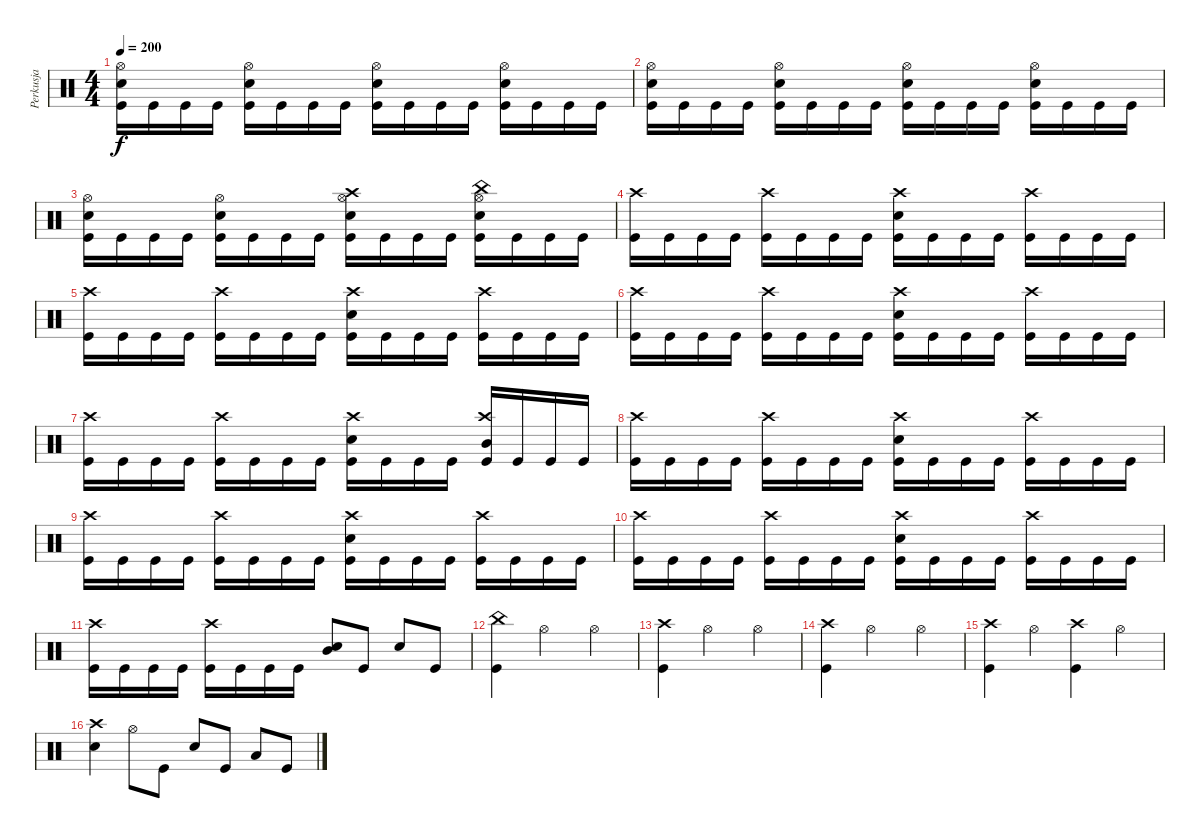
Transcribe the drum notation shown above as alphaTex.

\track ("Perkusja" "Perkusja") {instrument percussion}
\staff {score}
\articulation defaults
\ts (4 4)
\tempo 200
\clef neutral
\ks c
("Hi-Hat (open)" "Electric Snare (hit)" "Kick (hit)").16{dy f} "Kick (hit)".16 "Kick (hit)".16 "Kick (hit)".16 ("Hi-Hat (open)" "Electric Snare (hit)" "Kick (hit)").16 "Kick (hit)".16 "Kick (hit)".16 "Kick (hit)".16 ("Hi-Hat (open)" "Electric Snare (hit)" "Kick (hit)").16 "Kick (hit)".16 "Kick (hit)".16 "Kick (hit)".16 ("Hi-Hat (open)" "Electric Snare (hit)" "Kick (hit)").16 "Kick (hit)".16 "Kick (hit)".16 "Kick (hit)".16 |
("Hi-Hat (open)" "Electric Snare (hit)" "Kick (hit)").16 "Kick (hit)".16 "Kick (hit)".16 "Kick (hit)".16 ("Hi-Hat (open)" "Electric Snare (hit)" "Kick (hit)").16 "Kick (hit)".16 "Kick (hit)".16 "Kick (hit)".16 ("Hi-Hat (open)" "Electric Snare (hit)" "Kick (hit)").16 "Kick (hit)".16 "Kick (hit)".16 "Kick (hit)".16 ("Hi-Hat (open)" "Electric Snare (hit)" "Kick (hit)").16 "Kick (hit)".16 "Kick (hit)".16 "Kick (hit)".16 |
("Hi-Hat (open)" "Electric Snare (hit)" "Kick (hit)").16 "Kick (hit)".16 "Kick (hit)".16 "Kick (hit)".16 ("Hi-Hat (open)" "Electric Snare (hit)" "Kick (hit)").16 "Kick (hit)".16 "Kick (hit)".16 "Kick (hit)".16 ("Crash high (hit)" "Hi-Hat (open)" "Electric Snare (hit)" "Kick (hit)").16 "Kick (hit)".16 "Kick (hit)".16 "Kick (hit)".16 ("China (hit)" "Hi-Hat (open)" "Electric Snare (hit)" "Kick (hit)").16 "Kick (hit)".16 "Kick (hit)".16 "Kick (hit)".16 |
("Crash high (hit)" "Kick (hit)").16 "Kick (hit)".16 "Kick (hit)".16 "Kick (hit)".16 ("Crash high (hit)" "Kick (hit)").16 "Kick (hit)".16 "Kick (hit)".16 "Kick (hit)".16 ("Crash high (hit)" "Electric Snare (hit)" "Kick (hit)").16 "Kick (hit)".16 "Kick (hit)".16 "Kick (hit)".16 ("Crash high (hit)" "Kick (hit)").16 "Kick (hit)".16 "Kick (hit)".16 "Kick (hit)".16 |
("Crash high (hit)" "Kick (hit)").16 "Kick (hit)".16 "Kick (hit)".16 "Kick (hit)".16 ("Crash high (hit)" "Kick (hit)").16 "Kick (hit)".16 "Kick (hit)".16 "Kick (hit)".16 ("Crash high (hit)" "Electric Snare (hit)" "Kick (hit)").16 "Kick (hit)".16 "Kick (hit)".16 "Kick (hit)".16 ("Crash high (hit)" "Kick (hit)").16 "Kick (hit)".16 "Kick (hit)".16 "Kick (hit)".16 |
("Crash high (hit)" "Kick (hit)").16 "Kick (hit)".16 "Kick (hit)".16 "Kick (hit)".16 ("Crash high (hit)" "Kick (hit)").16 "Kick (hit)".16 "Kick (hit)".16 "Kick (hit)".16 ("Crash high (hit)" "Electric Snare (hit)" "Kick (hit)").16 "Kick (hit)".16 "Kick (hit)".16 "Kick (hit)".16 ("Crash high (hit)" "Kick (hit)").16 "Kick (hit)".16 "Kick (hit)".16 "Kick (hit)".16 |
("Crash high (hit)" "Kick (hit)").16 "Kick (hit)".16 "Kick (hit)".16 "Kick (hit)".16 ("Crash high (hit)" "Kick (hit)").16 "Kick (hit)".16 "Kick (hit)".16 "Kick (hit)".16 ("Crash high (hit)" "Electric Snare (hit)" "Kick (hit)").16 "Kick (hit)".16 "Kick (hit)".16 "Kick (hit)".16 ("Crash high (hit)" "Mid Tom (hit)" "Kick (hit)").16 "Kick (hit)".16 "Kick (hit)".16 "Kick (hit)".16 |
("Crash high (hit)" "Kick (hit)").16 "Kick (hit)".16 "Kick (hit)".16 "Kick (hit)".16 ("Crash high (hit)" "Kick (hit)").16 "Kick (hit)".16 "Kick (hit)".16 "Kick (hit)".16 ("Crash high (hit)" "Electric Snare (hit)" "Kick (hit)").16 "Kick (hit)".16 "Kick (hit)".16 "Kick (hit)".16 ("Crash high (hit)" "Kick (hit)").16 "Kick (hit)".16 "Kick (hit)".16 "Kick (hit)".16 |
("Crash high (hit)" "Kick (hit)").16 "Kick (hit)".16 "Kick (hit)".16 "Kick (hit)".16 ("Crash high (hit)" "Kick (hit)").16 "Kick (hit)".16 "Kick (hit)".16 "Kick (hit)".16 ("Crash high (hit)" "Electric Snare (hit)" "Kick (hit)").16 "Kick (hit)".16 "Kick (hit)".16 "Kick (hit)".16 ("Crash high (hit)" "Kick (hit)").16 "Kick (hit)".16 "Kick (hit)".16 "Kick (hit)".16 |
("Crash high (hit)" "Kick (hit)").16 "Kick (hit)".16 "Kick (hit)".16 "Kick (hit)".16 ("Crash high (hit)" "Kick (hit)").16 "Kick (hit)".16 "Kick (hit)".16 "Kick (hit)".16 ("Crash high (hit)" "Electric Snare (hit)" "Kick (hit)").16 "Kick (hit)".16 "Kick (hit)".16 "Kick (hit)".16 ("Crash high (hit)" "Kick (hit)").16 "Kick (hit)".16 "Kick (hit)".16 "Kick (hit)".16 |
("Crash high (hit)" "Kick (hit)").16 "Kick (hit)".16 "Kick (hit)".16 "Kick (hit)".16 ("Crash high (hit)" "Kick (hit)").16 "Kick (hit)".16 "Kick (hit)".16 "Kick (hit)".16 ("Mid Tom (hit)" "Electric Snare (hit)").8 "Kick (hit)".8 "Electric Snare (hit)".8 "Kick (hit)".8 |
("China (hit)" "Kick (hit)").4 "Hi-Hat (open)".2 "Hi-Hat (open)".4 |
("Crash high (hit)" "Kick (hit)").4 "Hi-Hat (open)".2 "Hi-Hat (open)".4 |
("Crash high (hit)" "Kick (hit)").4 "Hi-Hat (open)".2 "Hi-Hat (open)".4 |
("Crash high (hit)" "Kick (hit)").4 "Hi-Hat (open)".4 ("Crash high (hit)" "Kick (hit)").4 "Hi-Hat (open)".4 |
("Crash high (hit)" "Electric Snare (hit)").4 "Hi-Hat (open)".8 "Kick (hit)".8 "Electric Snare (hit)".8 "Kick (hit)".8 "Low Tom (hit)".8 "Kick (hit)".8
